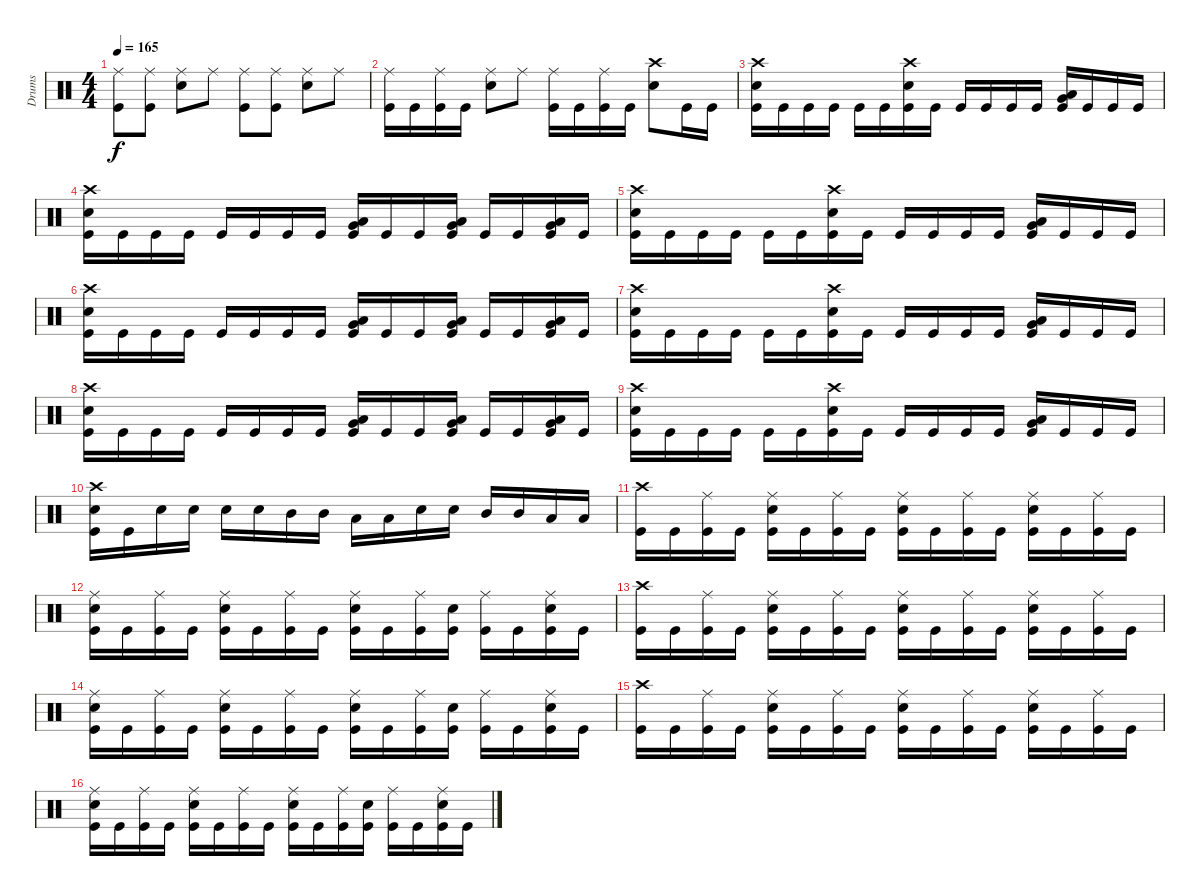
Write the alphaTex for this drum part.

\track ("Drums" "Drums") {instrument percussion}
\staff {score}
\articulation defaults
\ts (4 4)
\tempo 165
\clef neutral
\ks c
("Ride (middle)" "Kick (hit)").8{dy f} ("Ride (middle)" "Kick (hit)").8 ("Ride (middle)" "Electric Snare (hit)").8 "Ride (middle)".8 ("Ride (middle)" "Kick (hit)").8 ("Ride (middle)" "Kick (hit)").8 ("Ride (middle)" "Electric Snare (hit)").8 "Ride (middle)".8 |
("Ride (middle)" "Kick (hit)").16 "Kick (hit)".16 ("Ride (middle)" "Kick (hit)").16 "Kick (hit)".16 ("Ride (middle)" "Electric Snare (hit)").8 "Ride (middle)".8 ("Ride (middle)" "Kick (hit)").16 "Kick (hit)".16 ("Ride (middle)" "Kick (hit)").16 "Kick (hit)".16 ("Crash high (hit)" "Electric Snare (hit)").8 "Kick (hit)".16 "Kick (hit)".16 |
("Crash high (hit)" "Electric Snare (hit)" "Kick (hit)").16 "Kick (hit)".16 "Kick (hit)".16 "Kick (hit)".16 "Kick (hit)".16 "Kick (hit)".16 ("Crash high (hit)" "Electric Snare (hit)" "Kick (hit)").16 "Kick (hit)".16 "Kick (hit)".16 "Kick (hit)".16 "Kick (hit)".16 "Kick (hit)".16 ("Low Tom (hit)" "Very Low Tom (hit)" "Kick (hit)").16 "Kick (hit)".16 "Kick (hit)".16 "Kick (hit)".16 |
("Crash high (hit)" "Electric Snare (hit)" "Kick (hit)").16 "Kick (hit)".16 "Kick (hit)".16 "Kick (hit)".16 "Kick (hit)".16 "Kick (hit)".16 "Kick (hit)".16 "Kick (hit)".16 ("Low Tom (hit)" "Very Low Tom (hit)" "Kick (hit)").16 "Kick (hit)".16 "Kick (hit)".16 ("Low Tom (hit)" "Very Low Tom (hit)" "Kick (hit)").16 "Kick (hit)".16 "Kick (hit)".16 ("Low Tom (hit)" "Very Low Tom (hit)" "Kick (hit)").16 "Kick (hit)".16 |
("Crash high (hit)" "Electric Snare (hit)" "Kick (hit)").16 "Kick (hit)".16 "Kick (hit)".16 "Kick (hit)".16 "Kick (hit)".16 "Kick (hit)".16 ("Crash high (hit)" "Electric Snare (hit)" "Kick (hit)").16 "Kick (hit)".16 "Kick (hit)".16 "Kick (hit)".16 "Kick (hit)".16 "Kick (hit)".16 ("Low Tom (hit)" "Very Low Tom (hit)" "Kick (hit)").16 "Kick (hit)".16 "Kick (hit)".16 "Kick (hit)".16 |
("Crash high (hit)" "Electric Snare (hit)" "Kick (hit)").16 "Kick (hit)".16 "Kick (hit)".16 "Kick (hit)".16 "Kick (hit)".16 "Kick (hit)".16 "Kick (hit)".16 "Kick (hit)".16 ("Low Tom (hit)" "Very Low Tom (hit)" "Kick (hit)").16 "Kick (hit)".16 "Kick (hit)".16 ("Low Tom (hit)" "Very Low Tom (hit)" "Kick (hit)").16 "Kick (hit)".16 "Kick (hit)".16 ("Low Tom (hit)" "Very Low Tom (hit)" "Kick (hit)").16 "Kick (hit)".16 |
("Crash high (hit)" "Electric Snare (hit)" "Kick (hit)").16 "Kick (hit)".16 "Kick (hit)".16 "Kick (hit)".16 "Kick (hit)".16 "Kick (hit)".16 ("Crash high (hit)" "Electric Snare (hit)" "Kick (hit)").16 "Kick (hit)".16 "Kick (hit)".16 "Kick (hit)".16 "Kick (hit)".16 "Kick (hit)".16 ("Low Tom (hit)" "Very Low Tom (hit)" "Kick (hit)").16 "Kick (hit)".16 "Kick (hit)".16 "Kick (hit)".16 |
("Crash high (hit)" "Electric Snare (hit)" "Kick (hit)").16 "Kick (hit)".16 "Kick (hit)".16 "Kick (hit)".16 "Kick (hit)".16 "Kick (hit)".16 "Kick (hit)".16 "Kick (hit)".16 ("Low Tom (hit)" "Very Low Tom (hit)" "Kick (hit)").16 "Kick (hit)".16 "Kick (hit)".16 ("Low Tom (hit)" "Very Low Tom (hit)" "Kick (hit)").16 "Kick (hit)".16 "Kick (hit)".16 ("Low Tom (hit)" "Very Low Tom (hit)" "Kick (hit)").16 "Kick (hit)".16 |
("Crash high (hit)" "Electric Snare (hit)" "Kick (hit)").16 "Kick (hit)".16 "Kick (hit)".16 "Kick (hit)".16 "Kick (hit)".16 "Kick (hit)".16 ("Crash high (hit)" "Electric Snare (hit)" "Kick (hit)").16 "Kick (hit)".16 "Kick (hit)".16 "Kick (hit)".16 "Kick (hit)".16 "Kick (hit)".16 ("Low Tom (hit)" "Very Low Tom (hit)" "Kick (hit)").16 "Kick (hit)".16 "Kick (hit)".16 "Kick (hit)".16 |
("Crash high (hit)" "Electric Snare (hit)" "Kick (hit)").16 "Kick (hit)".16 "Electric Snare (hit)".16 "Electric Snare (hit)".16 "Electric Snare (hit)".16 "Electric Snare (hit)".16 "Mid Tom (hit)".16 "Mid Tom (hit)".16 "Low Tom (hit)".16 "Low Tom (hit)".16 "Electric Snare (hit)".16 "Electric Snare (hit)".16 "Mid Tom (hit)".16 "Mid Tom (hit)".16 "Low Tom (hit)".16 "Low Tom (hit)".16 |
("Crash high (hit)" "Kick (hit)").16 "Kick (hit)".16 ("Ride (middle)" "Kick (hit)").16 "Kick (hit)".16 ("Ride (middle)" "Electric Snare (hit)" "Kick (hit)").16 "Kick (hit)".16 ("Ride (middle)" "Kick (hit)").16 "Kick (hit)".16 ("Ride (middle)" "Electric Snare (hit)" "Kick (hit)").16 "Kick (hit)".16 ("Ride (middle)" "Kick (hit)").16 "Kick (hit)".16 ("Ride (middle)" "Electric Snare (hit)" "Kick (hit)").16 "Kick (hit)".16 ("Ride (middle)" "Kick (hit)").16 "Kick (hit)".16 |
("Ride (middle)" "Electric Snare (hit)" "Kick (hit)").16 "Kick (hit)".16 ("Ride (middle)" "Kick (hit)").16 "Kick (hit)".16 ("Ride (middle)" "Electric Snare (hit)" "Kick (hit)").16 "Kick (hit)".16 ("Ride (middle)" "Kick (hit)").16 "Kick (hit)".16 ("Ride (middle)" "Electric Snare (hit)" "Kick (hit)").16 "Kick (hit)".16 ("Ride (middle)" "Kick (hit)").16 ("Electric Snare (hit)" "Kick (hit)").16 ("Ride (middle)" "Kick (hit)").16 "Kick (hit)".16 ("Ride (middle)" "Electric Snare (hit)" "Kick (hit)").16 "Kick (hit)".16 |
("Crash high (hit)" "Kick (hit)").16 "Kick (hit)".16 ("Ride (middle)" "Kick (hit)").16 "Kick (hit)".16 ("Ride (middle)" "Electric Snare (hit)" "Kick (hit)").16 "Kick (hit)".16 ("Ride (middle)" "Kick (hit)").16 "Kick (hit)".16 ("Ride (middle)" "Electric Snare (hit)" "Kick (hit)").16 "Kick (hit)".16 ("Ride (middle)" "Kick (hit)").16 "Kick (hit)".16 ("Ride (middle)" "Electric Snare (hit)" "Kick (hit)").16 "Kick (hit)".16 ("Ride (middle)" "Kick (hit)").16 "Kick (hit)".16 |
("Ride (middle)" "Electric Snare (hit)" "Kick (hit)").16 "Kick (hit)".16 ("Ride (middle)" "Kick (hit)").16 "Kick (hit)".16 ("Ride (middle)" "Electric Snare (hit)" "Kick (hit)").16 "Kick (hit)".16 ("Ride (middle)" "Kick (hit)").16 "Kick (hit)".16 ("Ride (middle)" "Electric Snare (hit)" "Kick (hit)").16 "Kick (hit)".16 ("Ride (middle)" "Kick (hit)").16 ("Electric Snare (hit)" "Kick (hit)").16 ("Ride (middle)" "Kick (hit)").16 "Kick (hit)".16 ("Ride (middle)" "Electric Snare (hit)" "Kick (hit)").16 "Kick (hit)".16 |
("Crash high (hit)" "Kick (hit)").16 "Kick (hit)".16 ("Ride (middle)" "Kick (hit)").16 "Kick (hit)".16 ("Ride (middle)" "Electric Snare (hit)" "Kick (hit)").16 "Kick (hit)".16 ("Ride (middle)" "Kick (hit)").16 "Kick (hit)".16 ("Ride (middle)" "Electric Snare (hit)" "Kick (hit)").16 "Kick (hit)".16 ("Ride (middle)" "Kick (hit)").16 "Kick (hit)".16 ("Ride (middle)" "Electric Snare (hit)" "Kick (hit)").16 "Kick (hit)".16 ("Ride (middle)" "Kick (hit)").16 "Kick (hit)".16 |
("Ride (middle)" "Electric Snare (hit)" "Kick (hit)").16 "Kick (hit)".16 ("Ride (middle)" "Kick (hit)").16 "Kick (hit)".16 ("Ride (middle)" "Electric Snare (hit)" "Kick (hit)").16 "Kick (hit)".16 ("Ride (middle)" "Kick (hit)").16 "Kick (hit)".16 ("Ride (middle)" "Electric Snare (hit)" "Kick (hit)").16 "Kick (hit)".16 ("Ride (middle)" "Kick (hit)").16 ("Electric Snare (hit)" "Kick (hit)").16 ("Ride (middle)" "Kick (hit)").16 "Kick (hit)".16 ("Ride (middle)" "Electric Snare (hit)" "Kick (hit)").16 "Kick (hit)".16
